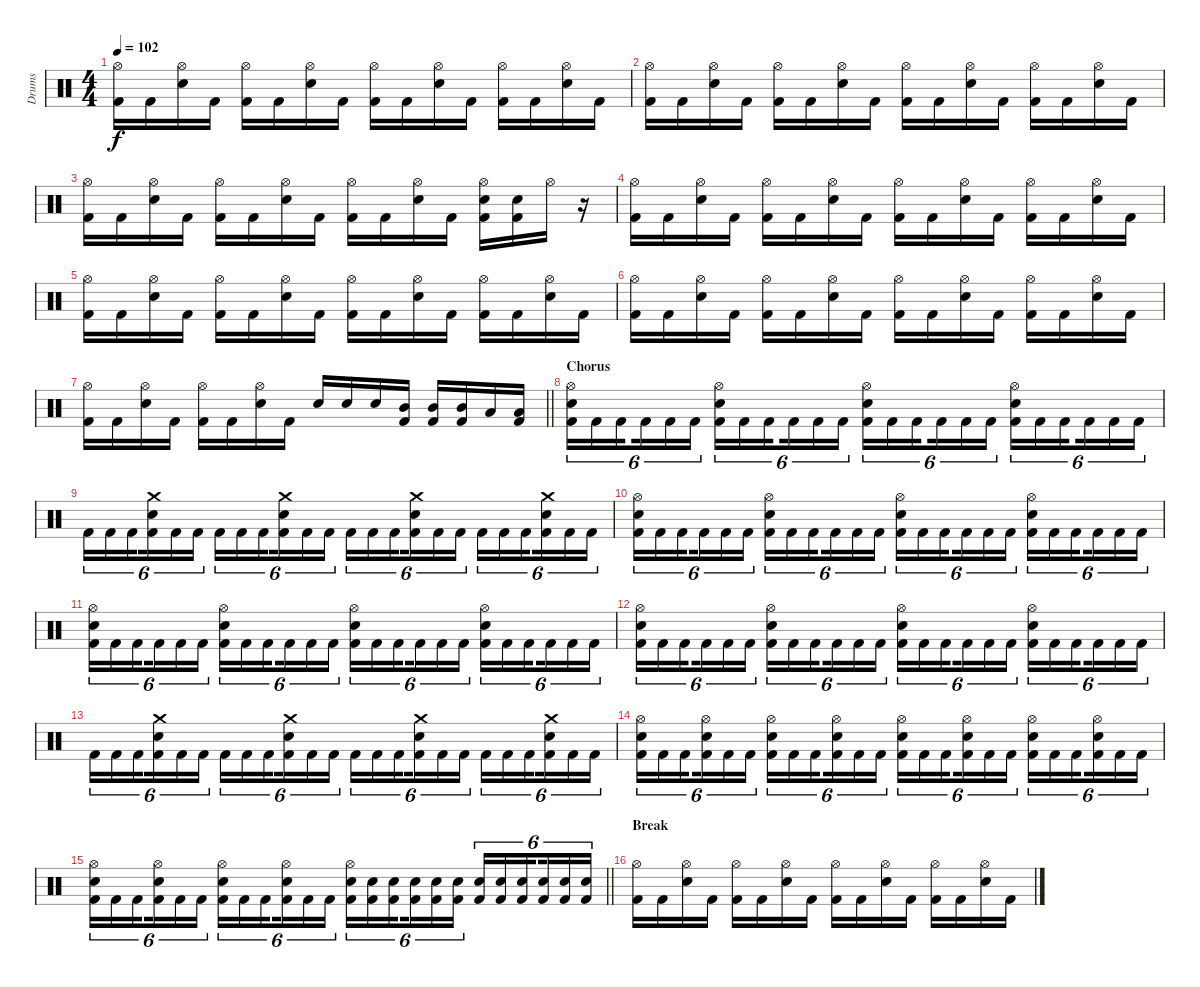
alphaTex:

\track ("Drums" "Drums") {instrument percussion}
\staff {score}
\articulation defaults
\ts (4 4)
\tempo 102
\clef neutral
\ks c
("Hi-Hat (open)" "Kick (hit) 2").16{dy f} "Kick (hit) 2".16 ("Hi-Hat (open)" "Snare (hit) 2").16 "Kick (hit) 2".16 ("Hi-Hat (open)" "Kick (hit) 2").16 "Kick (hit) 2".16 ("Hi-Hat (open)" "Snare (hit) 2").16 "Kick (hit) 2".16 ("Hi-Hat (open)" "Kick (hit) 2").16 "Kick (hit) 2".16 ("Hi-Hat (open)" "Snare (hit) 2").16 "Kick (hit) 2".16 ("Hi-Hat (open)" "Kick (hit) 2").16 "Kick (hit) 2".16 ("Hi-Hat (open)" "Snare (hit) 2").16 "Kick (hit) 2".16 |
("Hi-Hat (open)" "Kick (hit) 2").16 "Kick (hit) 2".16 ("Hi-Hat (open)" "Snare (hit) 2").16 "Kick (hit) 2".16 ("Hi-Hat (open)" "Kick (hit) 2").16 "Kick (hit) 2".16 ("Hi-Hat (open)" "Snare (hit) 2").16 "Kick (hit) 2".16 ("Hi-Hat (open)" "Kick (hit) 2").16 "Kick (hit) 2".16 ("Hi-Hat (open)" "Snare (hit) 2").16 "Kick (hit) 2".16 ("Hi-Hat (open)" "Kick (hit) 2").16 "Kick (hit) 2".16 ("Hi-Hat (open)" "Snare (hit) 2").16 "Kick (hit) 2".16 |
("Hi-Hat (open)" "Kick (hit) 2").16 "Kick (hit) 2".16 ("Hi-Hat (open)" "Snare (hit) 2").16 "Kick (hit) 2".16 ("Hi-Hat (open)" "Kick (hit) 2").16 "Kick (hit) 2".16 ("Hi-Hat (open)" "Snare (hit) 2").16 "Kick (hit) 2".16 ("Hi-Hat (open)" "Kick (hit) 2").16 "Kick (hit) 2".16 ("Hi-Hat (open)" "Snare (hit) 2").16 "Kick (hit) 2".16 ("Hi-Hat (open)" "Snare (hit) 2" "Kick (hit) 2").16 ("Snare (hit) 2" "Kick (hit) 2").16 "Hi-Hat (open)".16 r.16 |
("Hi-Hat (open)" "Kick (hit) 2").16 "Kick (hit) 2".16 ("Hi-Hat (open)" "Snare (hit) 2").16 "Kick (hit) 2".16 ("Hi-Hat (open)" "Kick (hit) 2").16 "Kick (hit) 2".16 ("Hi-Hat (open)" "Snare (hit) 2").16 "Kick (hit) 2".16 ("Hi-Hat (open)" "Kick (hit) 2").16 "Kick (hit) 2".16 ("Hi-Hat (open)" "Snare (hit) 2").16 "Kick (hit) 2".16 ("Hi-Hat (open)" "Kick (hit) 2").16 "Kick (hit) 2".16 ("Hi-Hat (open)" "Snare (hit) 2").16 "Kick (hit) 2".16 |
("Hi-Hat (open)" "Kick (hit) 2").16 "Kick (hit) 2".16 ("Hi-Hat (open)" "Snare (hit) 2").16 "Kick (hit) 2".16 ("Hi-Hat (open)" "Kick (hit) 2").16 "Kick (hit) 2".16 ("Hi-Hat (open)" "Snare (hit) 2").16 "Kick (hit) 2".16 ("Hi-Hat (open)" "Kick (hit) 2").16 "Kick (hit) 2".16 ("Hi-Hat (open)" "Snare (hit) 2").16 "Kick (hit) 2".16 ("Hi-Hat (open)" "Kick (hit) 2").16 "Kick (hit) 2".16 ("Hi-Hat (open)" "Snare (hit) 2").16 "Kick (hit) 2".16 |
("Hi-Hat (open)" "Kick (hit) 2").16 "Kick (hit) 2".16 ("Hi-Hat (open)" "Snare (hit) 2").16 "Kick (hit) 2".16 ("Hi-Hat (open)" "Kick (hit) 2").16 "Kick (hit) 2".16 ("Hi-Hat (open)" "Snare (hit) 2").16 "Kick (hit) 2".16 ("Hi-Hat (open)" "Kick (hit) 2").16 "Kick (hit) 2".16 ("Hi-Hat (open)" "Snare (hit) 2").16 "Kick (hit) 2".16 ("Hi-Hat (open)" "Kick (hit) 2").16 "Kick (hit) 2".16 ("Hi-Hat (open)" "Snare (hit) 2").16 "Kick (hit) 2".16 |
\barLineRight lightlight
("Hi-Hat (open)" "Kick (hit) 2").16 "Kick (hit) 2".16 ("Hi-Hat (open)" "Snare (hit) 2").16 "Kick (hit) 2".16 ("Hi-Hat (open)" "Kick (hit) 2").16 "Kick (hit) 2".16 ("Hi-Hat (open)" "Snare (hit) 2").16 "Kick (hit) 2".16 "Snare (hit) 2".16 "Snare (hit) 2".16 "Snare (hit) 2".16 ("Mid Tom (hit)" "Kick (hit) 2").16 ("Mid Tom (hit)" "Kick (hit) 2").16 ("Mid Tom (hit)" "Kick (hit) 2").16 "Low Tom (hit)".16 ("Low Tom (hit)" "Kick (hit) 2").16 |
\section ("" "Chorus")
("Hi-Hat (open)" "Snare (hit) 2" "Kick (hit) 2").16{tu (6 4)} "Kick (hit) 2".16{tu (6 4)} "Kick (hit) 2".16{tu (6 4) beam splitsecondary} "Kick (hit) 2".16{tu (6 4)} "Kick (hit) 2".16{tu (6 4)} "Kick (hit) 2".16{tu (6 4)} ("Hi-Hat (open)" "Snare (hit) 2" "Kick (hit) 2").16{tu (6 4)} "Kick (hit) 2".16{tu (6 4)} "Kick (hit) 2".16{tu (6 4) beam splitsecondary} "Kick (hit) 2".16{tu (6 4)} "Kick (hit) 2".16{tu (6 4)} "Kick (hit) 2".16{tu (6 4)} ("Hi-Hat (open)" "Snare (hit) 2" "Kick (hit) 2").16{tu (6 4)} "Kick (hit) 2".16{tu (6 4)} "Kick (hit) 2".16{tu (6 4) beam splitsecondary} "Kick (hit) 2".16{tu (6 4)} "Kick (hit) 2".16{tu (6 4)} "Kick (hit) 2".16{tu (6 4)} ("Hi-Hat (open)" "Snare (hit) 2" "Kick (hit) 2").16{tu (6 4)} "Kick (hit) 2".16{tu (6 4)} "Kick (hit) 2".16{tu (6 4) beam splitsecondary} "Kick (hit) 2".16{tu (6 4)} "Kick (hit) 2".16{tu (6 4)} "Kick (hit) 2".16{tu (6 4)} |
"Kick (hit) 2".16{tu (6 4)} "Kick (hit) 2".16{tu (6 4)} "Kick (hit) 2".16{tu (6 4) beam splitsecondary} ("Crash medium (hit)" "Snare (hit) 2" "Kick (hit) 2").16{tu (6 4)} "Kick (hit) 2".16{tu (6 4)} "Kick (hit) 2".16{tu (6 4)} "Kick (hit) 2".16{tu (6 4)} "Kick (hit) 2".16{tu (6 4)} "Kick (hit) 2".16{tu (6 4) beam splitsecondary} ("Crash medium (hit)" "Snare (hit) 2" "Kick (hit) 2").16{tu (6 4)} "Kick (hit) 2".16{tu (6 4)} "Kick (hit) 2".16{tu (6 4)} "Kick (hit) 2".16{tu (6 4)} "Kick (hit) 2".16{tu (6 4)} "Kick (hit) 2".16{tu (6 4) beam splitsecondary} ("Crash medium (hit)" "Snare (hit) 2" "Kick (hit) 2").16{tu (6 4)} "Kick (hit) 2".16{tu (6 4)} "Kick (hit) 2".16{tu (6 4)} "Kick (hit) 2".16{tu (6 4)} "Kick (hit) 2".16{tu (6 4)} "Kick (hit) 2".16{tu (6 4) beam splitsecondary} ("Snare (hit) 2" "Crash medium (hit)" "Kick (hit) 2").16{tu (6 4)} "Kick (hit) 2".16{tu (6 4)} "Kick (hit) 2".16{tu (6 4)} |
("Hi-Hat (open)" "Snare (hit) 2" "Kick (hit) 2").16{tu (6 4)} "Kick (hit) 2".16{tu (6 4)} "Kick (hit) 2".16{tu (6 4) beam splitsecondary} "Kick (hit) 2".16{tu (6 4)} "Kick (hit) 2".16{tu (6 4)} "Kick (hit) 2".16{tu (6 4)} ("Hi-Hat (open)" "Snare (hit) 2" "Kick (hit) 2").16{tu (6 4)} "Kick (hit) 2".16{tu (6 4)} "Kick (hit) 2".16{tu (6 4) beam splitsecondary} "Kick (hit) 2".16{tu (6 4)} "Kick (hit) 2".16{tu (6 4)} "Kick (hit) 2".16{tu (6 4)} ("Hi-Hat (open)" "Snare (hit) 2" "Kick (hit) 2").16{tu (6 4)} "Kick (hit) 2".16{tu (6 4)} "Kick (hit) 2".16{tu (6 4) beam splitsecondary} "Kick (hit) 2".16{tu (6 4)} "Kick (hit) 2".16{tu (6 4)} "Kick (hit) 2".16{tu (6 4)} ("Hi-Hat (open)" "Snare (hit) 2" "Kick (hit) 2").16{tu (6 4)} "Kick (hit) 2".16{tu (6 4)} "Kick (hit) 2".16{tu (6 4) beam splitsecondary} "Kick (hit) 2".16{tu (6 4)} "Kick (hit) 2".16{tu (6 4)} "Kick (hit) 2".16{tu (6 4)} |
("Hi-Hat (open)" "Snare (hit) 2" "Kick (hit) 2").16{tu (6 4)} "Kick (hit) 2".16{tu (6 4)} "Kick (hit) 2".16{tu (6 4) beam splitsecondary} "Kick (hit) 2".16{tu (6 4)} "Kick (hit) 2".16{tu (6 4)} "Kick (hit) 2".16{tu (6 4)} ("Hi-Hat (open)" "Snare (hit) 2" "Kick (hit) 2").16{tu (6 4)} "Kick (hit) 2".16{tu (6 4)} "Kick (hit) 2".16{tu (6 4) beam splitsecondary} "Kick (hit) 2".16{tu (6 4)} "Kick (hit) 2".16{tu (6 4)} "Kick (hit) 2".16{tu (6 4)} ("Hi-Hat (open)" "Snare (hit) 2" "Kick (hit) 2").16{tu (6 4)} "Kick (hit) 2".16{tu (6 4)} "Kick (hit) 2".16{tu (6 4) beam splitsecondary} "Kick (hit) 2".16{tu (6 4)} "Kick (hit) 2".16{tu (6 4)} "Kick (hit) 2".16{tu (6 4)} ("Hi-Hat (open)" "Snare (hit) 2" "Kick (hit) 2").16{tu (6 4)} "Kick (hit) 2".16{tu (6 4)} "Kick (hit) 2".16{tu (6 4) beam splitsecondary} "Kick (hit) 2".16{tu (6 4)} "Kick (hit) 2".16{tu (6 4)} "Kick (hit) 2".16{tu (6 4)} |
("Hi-Hat (open)" "Snare (hit) 2" "Kick (hit) 2").16{tu (6 4)} "Kick (hit) 2".16{tu (6 4)} "Kick (hit) 2".16{tu (6 4) beam splitsecondary} "Kick (hit) 2".16{tu (6 4)} "Kick (hit) 2".16{tu (6 4)} "Kick (hit) 2".16{tu (6 4)} ("Hi-Hat (open)" "Snare (hit) 2" "Kick (hit) 2").16{tu (6 4)} "Kick (hit) 2".16{tu (6 4)} "Kick (hit) 2".16{tu (6 4) beam splitsecondary} "Kick (hit) 2".16{tu (6 4)} "Kick (hit) 2".16{tu (6 4)} "Kick (hit) 2".16{tu (6 4)} ("Hi-Hat (open)" "Snare (hit) 2" "Kick (hit) 2").16{tu (6 4)} "Kick (hit) 2".16{tu (6 4)} "Kick (hit) 2".16{tu (6 4) beam splitsecondary} "Kick (hit) 2".16{tu (6 4)} "Kick (hit) 2".16{tu (6 4)} "Kick (hit) 2".16{tu (6 4)} ("Hi-Hat (open)" "Snare (hit) 2" "Kick (hit) 2").16{tu (6 4)} "Kick (hit) 2".16{tu (6 4)} "Kick (hit) 2".16{tu (6 4) beam splitsecondary} "Kick (hit) 2".16{tu (6 4)} "Kick (hit) 2".16{tu (6 4)} "Kick (hit) 2".16{tu (6 4)} |
"Kick (hit) 2".16{tu (6 4)} "Kick (hit) 2".16{tu (6 4)} "Kick (hit) 2".16{tu (6 4) beam splitsecondary} ("Crash medium (hit)" "Snare (hit) 2" "Kick (hit) 2").16{tu (6 4)} "Kick (hit) 2".16{tu (6 4)} "Kick (hit) 2".16{tu (6 4)} "Kick (hit) 2".16{tu (6 4)} "Kick (hit) 2".16{tu (6 4)} "Kick (hit) 2".16{tu (6 4) beam splitsecondary} ("Crash medium (hit)" "Snare (hit) 2" "Kick (hit) 2").16{tu (6 4)} "Kick (hit) 2".16{tu (6 4)} "Kick (hit) 2".16{tu (6 4)} "Kick (hit) 2".16{tu (6 4)} "Kick (hit) 2".16{tu (6 4)} "Kick (hit) 2".16{tu (6 4) beam splitsecondary} ("Crash medium (hit)" "Snare (hit) 2" "Kick (hit) 2").16{tu (6 4)} "Kick (hit) 2".16{tu (6 4)} "Kick (hit) 2".16{tu (6 4)} "Kick (hit) 2".16{tu (6 4)} "Kick (hit) 2".16{tu (6 4)} "Kick (hit) 2".16{tu (6 4) beam splitsecondary} ("Snare (hit) 2" "Crash medium (hit)" "Kick (hit) 2").16{tu (6 4)} "Kick (hit) 2".16{tu (6 4)} "Kick (hit) 2".16{tu (6 4)} |
("Hi-Hat (open)" "Snare (hit) 2" "Kick (hit) 2").16{tu (6 4)} "Kick (hit) 2".16{tu (6 4)} "Kick (hit) 2".16{tu (6 4) beam splitsecondary} ("Hi-Hat (open)" "Snare (hit) 2" "Kick (hit) 2").16{tu (6 4)} "Kick (hit) 2".16{tu (6 4)} "Kick (hit) 2".16{tu (6 4)} ("Hi-Hat (open)" "Snare (hit) 2" "Kick (hit) 2").16{tu (6 4)} "Kick (hit) 2".16{tu (6 4)} "Kick (hit) 2".16{tu (6 4) beam splitsecondary} ("Hi-Hat (open)" "Snare (hit) 2" "Kick (hit) 2").16{tu (6 4)} "Kick (hit) 2".16{tu (6 4)} "Kick (hit) 2".16{tu (6 4)} ("Hi-Hat (open)" "Snare (hit) 2" "Kick (hit) 2").16{tu (6 4)} "Kick (hit) 2".16{tu (6 4)} "Kick (hit) 2".16{tu (6 4) beam splitsecondary} ("Hi-Hat (open)" "Snare (hit) 2" "Kick (hit) 2").16{tu (6 4)} "Kick (hit) 2".16{tu (6 4)} "Kick (hit) 2".16{tu (6 4)} ("Hi-Hat (open)" "Snare (hit) 2" "Kick (hit) 2").16{tu (6 4)} "Kick (hit) 2".16{tu (6 4)} "Kick (hit) 2".16{tu (6 4) beam splitsecondary} ("Hi-Hat (open)" "Snare (hit) 2" "Kick (hit) 2").16{tu (6 4)} "Kick (hit) 2".16{tu (6 4)} "Kick (hit) 2".16{tu (6 4)} |
\barLineRight lightlight
("Hi-Hat (open)" "Snare (hit) 2" "Kick (hit) 2").16{tu (6 4)} "Kick (hit) 2".16{tu (6 4)} "Kick (hit) 2".16{tu (6 4) beam splitsecondary} ("Snare (hit) 2" "Hi-Hat (open)" "Kick (hit) 2").16{tu (6 4)} "Kick (hit) 2".16{tu (6 4)} "Kick (hit) 2".16{tu (6 4)} ("Hi-Hat (open)" "Snare (hit) 2" "Kick (hit) 2").16{tu (6 4)} "Kick (hit) 2".16{tu (6 4)} "Kick (hit) 2".16{tu (6 4) beam splitsecondary} ("Hi-Hat (open)" "Snare (hit) 2" "Kick (hit) 2").16{tu (6 4)} "Kick (hit) 2".16{tu (6 4)} "Kick (hit) 2".16{tu (6 4)} ("Hi-Hat (open)" "Snare (hit) 2" "Kick (hit) 2").16{tu (6 4)} ("Snare (hit) 2" "Kick (hit) 2").16{tu (6 4)} ("Snare (hit) 2" "Kick (hit) 2").16{tu (6 4) beam splitsecondary} ("Snare (hit) 2" "Kick (hit) 2").16{tu (6 4)} ("Snare (hit) 2" "Kick (hit) 2").16{tu (6 4)} ("Snare (hit) 2" "Kick (hit) 2").16{tu (6 4)} ("Snare (hit) 2" "Kick (hit) 2").16{tu (6 4)} ("Snare (hit) 2" "Kick (hit) 2").16{tu (6 4)} ("Snare (hit) 2" "Kick (hit) 2").16{tu (6 4) beam splitsecondary} ("Snare (hit) 2" "Kick (hit) 2").16{tu (6 4)} ("Snare (hit) 2" "Kick (hit) 2").16{tu (6 4)} ("Snare (hit) 2" "Kick (hit) 2").16{tu (6 4)} |
\section ("" "Break")
("Hi-Hat (open)" "Kick (hit) 2").16 "Kick (hit) 2".16 ("Hi-Hat (open)" "Snare (hit) 2").16 "Kick (hit) 2".16 ("Hi-Hat (open)" "Kick (hit) 2").16 "Kick (hit) 2".16 ("Hi-Hat (open)" "Snare (hit) 2").16 "Kick (hit) 2".16 ("Hi-Hat (open)" "Kick (hit) 2").16 "Kick (hit) 2".16 ("Hi-Hat (open)" "Snare (hit) 2").16 "Kick (hit) 2".16 ("Hi-Hat (open)" "Kick (hit) 2").16 "Kick (hit) 2".16 ("Hi-Hat (open)" "Snare (hit) 2").16 "Kick (hit) 2".16
